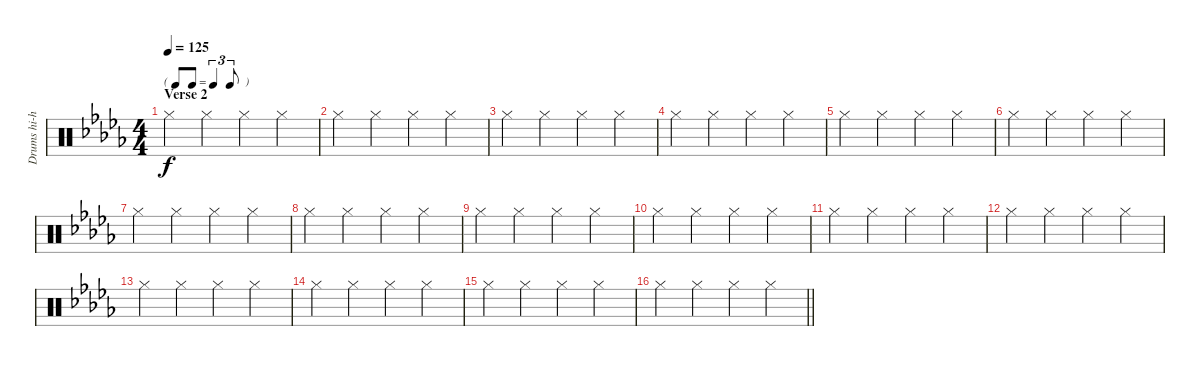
\track ("Drums hi-hat" "Drums hi-h") {instrument percussion}
\staff {score}
\articulation defaults
\ts (4 4)
\tf triplet8th
\section ("" "Verse 2")
\tempo 125
\clef neutral
\ks db "Hi-Hat (closed)".4{dy f} "Hi-Hat (closed)".4 "Hi-Hat (closed)".4 "Hi-Hat (closed)".4
|
"Hi-Hat (closed)".4 "Hi-Hat (closed)".4 "Hi-Hat (closed)".4 "Hi-Hat (closed)".4 |
"Hi-Hat (closed)".4 "Hi-Hat (closed)".4 "Hi-Hat (closed)".4 "Hi-Hat (closed)".4 |
"Hi-Hat (closed)".4 "Hi-Hat (closed)".4 "Hi-Hat (closed)".4 "Hi-Hat (closed)".4 |
"Hi-Hat (closed)".4 "Hi-Hat (closed)".4 "Hi-Hat (closed)".4 "Hi-Hat (closed)".4 |
"Hi-Hat (closed)".4 "Hi-Hat (closed)".4 "Hi-Hat (closed)".4 "Hi-Hat (closed)".4 |
"Hi-Hat (closed)".4 "Hi-Hat (closed)".4 "Hi-Hat (closed)".4 "Hi-Hat (closed)".4 |
"Hi-Hat (closed)".4 "Hi-Hat (closed)".4 "Hi-Hat (closed)".4 "Hi-Hat (closed)".4 |
"Hi-Hat (closed)".4 "Hi-Hat (closed)".4 "Hi-Hat (closed)".4 "Hi-Hat (closed)".4 |
"Hi-Hat (closed)".4 "Hi-Hat (closed)".4 "Hi-Hat (closed)".4 "Hi-Hat (closed)".4 |
"Hi-Hat (closed)".4 "Hi-Hat (closed)".4 "Hi-Hat (closed)".4 "Hi-Hat (closed)".4 |
"Hi-Hat (closed)".4 "Hi-Hat (closed)".4 "Hi-Hat (closed)".4 "Hi-Hat (closed)".4 |
"Hi-Hat (closed)".4 "Hi-Hat (closed)".4 "Hi-Hat (closed)".4 "Hi-Hat (closed)".4 |
"Hi-Hat (closed)".4 "Hi-Hat (closed)".4 "Hi-Hat (closed)".4 "Hi-Hat (closed)".4 |
"Hi-Hat (closed)".4 "Hi-Hat (closed)".4 "Hi-Hat (closed)".4 "Hi-Hat (closed)".4 |
\barLineRight lightlight "Hi-Hat (closed)".4 "Hi-Hat (closed)".4 "Hi-Hat (closed)".4 "Hi-Hat (closed)".4
